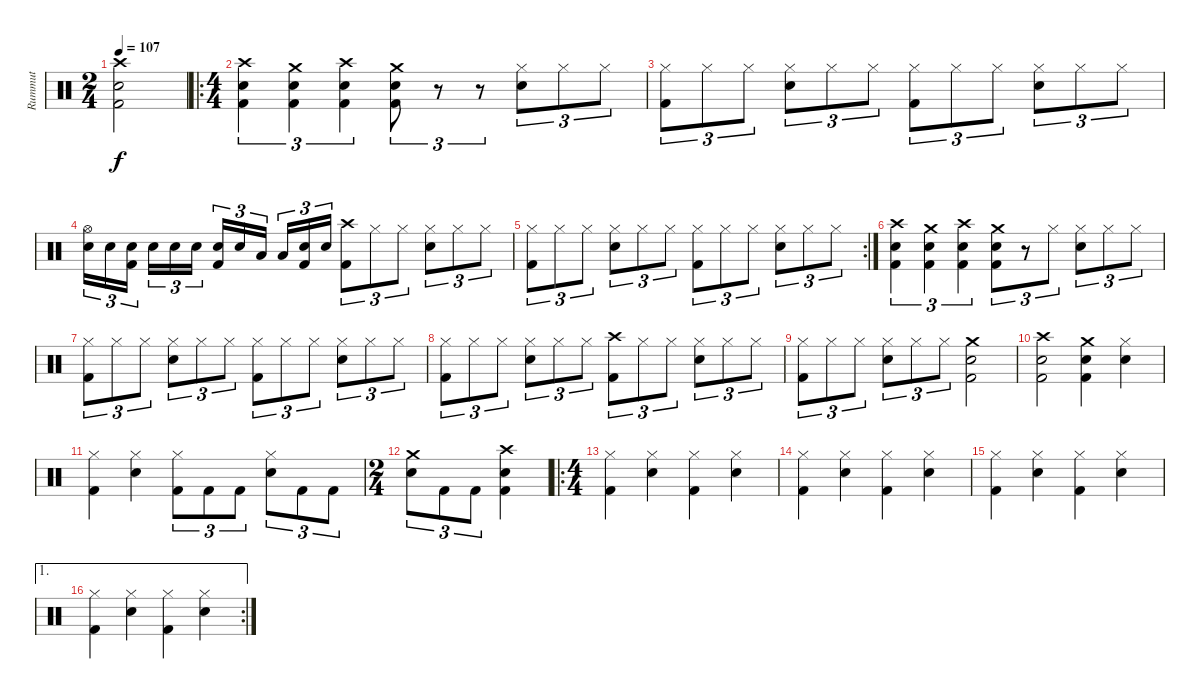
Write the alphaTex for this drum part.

\track ("Rummut" "Rummut") {instrument percussion}
\staff {score}
\articulation defaults
\ts (2 4)
\tempo 107
\clef neutral
\ks c
("Crash high (hit)" "Snare (hit) 2" "Kick (hit) 2").2{dy f} |
\ro
\ts (4 4)
("Crash high (hit)" "Snare (hit) 2" "Kick (hit) 2").4{tu (3 2)} ("Crash medium (hit)" "Snare (hit) 2" "Kick (hit) 2").4{tu (3 2)} ("Crash high (hit)" "Snare (hit) 2" "Kick (hit) 2").4{tu (3 2)} ("Crash medium (hit)" "Snare (hit) 2" "Kick (hit) 2").8{tu (3 2)} r.8{tu (3 2)} r.8{tu (3 2)} ("Hi-Hat (closed)" "Snare (hit) 2").8{tu (3 2)} "Hi-Hat (closed)".8{tu (3 2)} "Hi-Hat (closed)".8{tu (3 2)} |
("Hi-Hat (closed)" "Kick (hit) 2").8{tu (3 2)} "Hi-Hat (closed)".8{tu (3 2)} "Hi-Hat (closed)".8{tu (3 2)} ("Hi-Hat (closed)" "Snare (hit) 2").8{tu (3 2)} "Hi-Hat (closed)".8{tu (3 2)} "Hi-Hat (closed)".8{tu (3 2)} ("Hi-Hat (closed)" "Kick (hit) 2").8{tu (3 2)} "Hi-Hat (closed)".8{tu (3 2)} "Hi-Hat (closed)".8{tu (3 2)} ("Hi-Hat (closed)" "Snare (hit) 2").8{tu (3 2)} "Hi-Hat (closed)".8{tu (3 2)} "Hi-Hat (closed)".8{tu (3 2)} |
("Hi-Hat (open)" "Snare (hit) 2").16{tu (3 2)} "Snare (hit)".16{tu (3 2)} ("Snare (hit)" "Kick (hit) 2").16{tu (3 2)} "Snare (hit)".16{tu (3 2)} "Snare (hit) 2".16{tu (3 2)} "Snare (hit)".16{tu (3 2)} ("Snare (hit)" "Kick (hit) 2").16{tu (3 2)} "Snare (hit)".16{tu (3 2)} "Low Tom (hit)".16{tu (3 2)} "Low Tom (hit)".16{tu (3 2)} ("Snare (hit)" "Kick (hit) 2").16{tu (3 2)} "Snare (hit)".16{tu (3 2)} ("Crash high (hit)" "Kick (hit) 2").8{tu (3 2)} "Hi-Hat (closed)".8{tu (3 2)} "Hi-Hat (closed)".8{tu (3 2)} ("Hi-Hat (closed)" "Snare (hit) 2").8{tu (3 2)} "Hi-Hat (closed)".8{tu (3 2)} "Hi-Hat (closed)".8{tu (3 2)} |
\rc 2
("Hi-Hat (closed)" "Kick (hit) 2").8{tu (3 2)} "Hi-Hat (closed)".8{tu (3 2)} "Hi-Hat (closed)".8{tu (3 2)} ("Hi-Hat (closed)" "Snare (hit) 2").8{tu (3 2)} "Hi-Hat (closed)".8{tu (3 2)} "Hi-Hat (closed)".8{tu (3 2)} ("Hi-Hat (closed)" "Kick (hit) 2").8{tu (3 2)} "Hi-Hat (closed)".8{tu (3 2)} "Hi-Hat (closed)".8{tu (3 2)} ("Hi-Hat (closed)" "Snare (hit) 2").8{tu (3 2)} "Hi-Hat (closed)".8{tu (3 2)} "Hi-Hat (closed)".8{tu (3 2)} |
("Crash high (hit)" "Snare (hit) 2" "Kick (hit) 2").4{tu (3 2)} ("Crash medium (hit)" "Snare (hit) 2" "Kick (hit) 2").4{tu (3 2)} ("Crash high (hit)" "Snare (hit) 2" "Kick (hit) 2").4{tu (3 2)} ("Crash medium (hit)" "Snare (hit) 2" "Kick (hit) 2").8{tu (3 2)} r.8{tu (3 2)} "Hi-Hat (closed)".8{tu (3 2)} ("Hi-Hat (closed)" "Snare (hit) 2").8{tu (3 2)} "Hi-Hat (closed)".8{tu (3 2)} "Hi-Hat (closed)".8{tu (3 2)} |
("Hi-Hat (closed)" "Kick (hit) 2").8{tu (3 2)} "Hi-Hat (closed)".8{tu (3 2)} "Hi-Hat (closed)".8{tu (3 2)} ("Hi-Hat (closed)" "Snare (hit) 2").8{tu (3 2)} "Hi-Hat (closed)".8{tu (3 2)} "Hi-Hat (closed)".8{tu (3 2)} ("Hi-Hat (closed)" "Kick (hit) 2").8{tu (3 2)} "Hi-Hat (closed)".8{tu (3 2)} "Hi-Hat (closed)".8{tu (3 2)} ("Hi-Hat (closed)" "Snare (hit) 2").8{tu (3 2)} "Hi-Hat (closed)".8{tu (3 2)} "Hi-Hat (closed)".8{tu (3 2)} |
("Hi-Hat (closed)" "Kick (hit) 2").8{tu (3 2)} "Hi-Hat (closed)".8{tu (3 2)} "Hi-Hat (closed)".8{tu (3 2)} ("Hi-Hat (closed)" "Snare (hit) 2").8{tu (3 2)} "Hi-Hat (closed)".8{tu (3 2)} "Hi-Hat (closed)".8{tu (3 2)} ("Crash high (hit)" "Kick (hit) 2").8{tu (3 2)} "Hi-Hat (closed)".8{tu (3 2)} "Hi-Hat (closed)".8{tu (3 2)} ("Hi-Hat (closed)" "Snare (hit) 2").8{tu (3 2)} "Hi-Hat (closed)".8{tu (3 2)} "Hi-Hat (closed)".8{tu (3 2)} |
("Hi-Hat (closed)" "Kick (hit) 2").8{tu (3 2)} "Hi-Hat (closed)".8{tu (3 2)} "Hi-Hat (closed)".8{tu (3 2)} ("Hi-Hat (closed)" "Snare (hit) 2").8{tu (3 2)} "Hi-Hat (closed)".8{tu (3 2)} "Hi-Hat (closed)".8{tu (3 2)} ("Crash medium (hit)" "Snare (hit) 2" "Kick (hit) 2").2 |
("Crash high (hit)" "Snare (hit) 2" "Kick (hit) 2").2 ("Crash medium (hit)" "Snare (hit) 2" "Kick (hit) 2").4 ("Hi-Hat (closed)" "Snare (hit) 2").4 |
("Hi-Hat (closed)" "Kick (hit) 2").4 ("Hi-Hat (closed)" "Snare (hit) 2").4 ("Hi-Hat (closed)" "Kick (hit) 2").8{tu (3 2)} "Kick (hit) 2".8{tu (3 2)} "Kick (hit) 2".8{tu (3 2)} ("Hi-Hat (closed)" "Snare (hit) 2").8{tu (3 2)} "Kick (hit) 2".8{tu (3 2)} "Kick (hit) 2".8{tu (3 2)} |
\ts (2 4)
("Crash medium (hit)" "Snare (hit) 2").8{tu (3 2)} "Kick (hit) 2".8{tu (3 2)} "Kick (hit) 2".8{tu (3 2)} ("Crash high (hit)" "Snare (hit) 2" "Kick (hit) 2").4 |
\ro
\ts (4 4)
("Hi-Hat (closed)" "Kick (hit) 2").4 ("Hi-Hat (closed)" "Snare (hit) 2").4 ("Hi-Hat (closed)" "Kick (hit) 2").4 ("Hi-Hat (closed)" "Snare (hit) 2").4 |
("Hi-Hat (closed)" "Kick (hit) 2").4 ("Hi-Hat (closed)" "Snare (hit) 2").4 ("Hi-Hat (closed)" "Kick (hit) 2").4 ("Hi-Hat (closed)" "Snare (hit) 2").4 |
("Hi-Hat (closed)" "Kick (hit) 2").4 ("Hi-Hat (closed)" "Snare (hit) 2").4 ("Hi-Hat (closed)" "Kick (hit) 2").4 ("Hi-Hat (closed)" "Snare (hit) 2").4 |
\ae 1
\rc 2
("Hi-Hat (closed)" "Kick (hit) 2").4 ("Hi-Hat (closed)" "Snare (hit) 2").4 ("Hi-Hat (closed)" "Kick (hit) 2").4 ("Hi-Hat (closed)" "Snare (hit) 2").4
